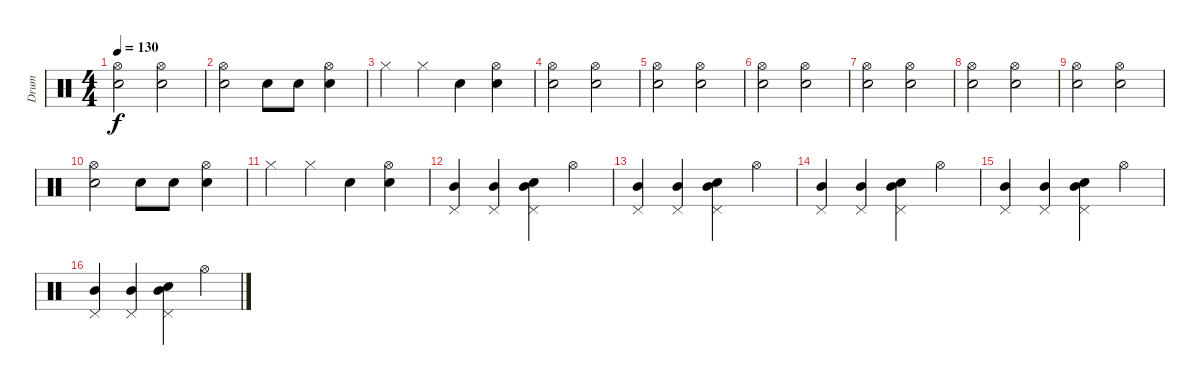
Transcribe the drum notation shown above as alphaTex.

\track ("Drum" "Drum") {instrument percussion}
\staff {score}
\articulation defaults
\ts (4 4)
\tempo 130
\clef neutral
\ks c
("Snare (hit) 2" "Hi-Hat (open)").2{dy f} ("Snare (hit) 2" "Hi-Hat (open)").2 |
("Snare (hit) 2" "Hi-Hat (open)").2 "Snare (hit) 2".8 "Snare (hit) 2".8 ("Snare (hit) 2" "Hi-Hat (open)").4 |
"Hi-Hat (closed)".4 "Hi-Hat (closed)".4 "Snare (hit) 2".4 ("Snare (hit) 2" "Hi-Hat (open)").4 |
("Snare (hit) 2" "Hi-Hat (open)").2 ("Snare (hit) 2" "Hi-Hat (open)").2 |
("Snare (hit) 2" "Hi-Hat (open)").2 ("Snare (hit) 2" "Hi-Hat (open)").2 |
("Snare (hit) 2" "Hi-Hat (open)").2 ("Snare (hit) 2" "Hi-Hat (open)").2 |
("Snare (hit) 2" "Hi-Hat (open)").2 ("Snare (hit) 2" "Hi-Hat (open)").2 |
("Snare (hit) 2" "Hi-Hat (open)").2 ("Snare (hit) 2" "Hi-Hat (open)").2 |
("Snare (hit) 2" "Hi-Hat (open)").2 ("Snare (hit) 2" "Hi-Hat (open)").2 |
("Snare (hit) 2" "Hi-Hat (open)").2 "Snare (hit) 2".8 "Snare (hit) 2".8 ("Snare (hit) 2" "Hi-Hat (open)").4 |
"Hi-Hat (closed)".4 "Hi-Hat (closed)".4 "Snare (hit) 2".4 ("Snare (hit) 2" "Hi-Hat (open)").4 |
("Pedal Hi-Hat (hit)" "Mid Tom (hit)").4 ("Pedal Hi-Hat (hit)" "Mid Tom (hit)").4 ("Pedal Hi-Hat (hit)" "Mid Tom (hit)" "Snare (hit) 2").4 "Hi-Hat (open)".4 |
("Pedal Hi-Hat (hit)" "Mid Tom (hit)").4 ("Pedal Hi-Hat (hit)" "Mid Tom (hit)").4 ("Pedal Hi-Hat (hit)" "Mid Tom (hit)" "Snare (hit) 2").4 "Hi-Hat (open)".4 |
("Pedal Hi-Hat (hit)" "Mid Tom (hit)").4 ("Pedal Hi-Hat (hit)" "Mid Tom (hit)").4 ("Pedal Hi-Hat (hit)" "Mid Tom (hit)" "Snare (hit) 2").4 "Hi-Hat (open)".4 |
("Pedal Hi-Hat (hit)" "Mid Tom (hit)").4 ("Pedal Hi-Hat (hit)" "Mid Tom (hit)").4 ("Pedal Hi-Hat (hit)" "Mid Tom (hit)" "Snare (hit) 2").4 "Hi-Hat (open)".4 |
("Pedal Hi-Hat (hit)" "Mid Tom (hit)").4 ("Pedal Hi-Hat (hit)" "Mid Tom (hit)").4 ("Pedal Hi-Hat (hit)" "Mid Tom (hit)" "Snare (hit) 2").4 "Hi-Hat (open)".4
